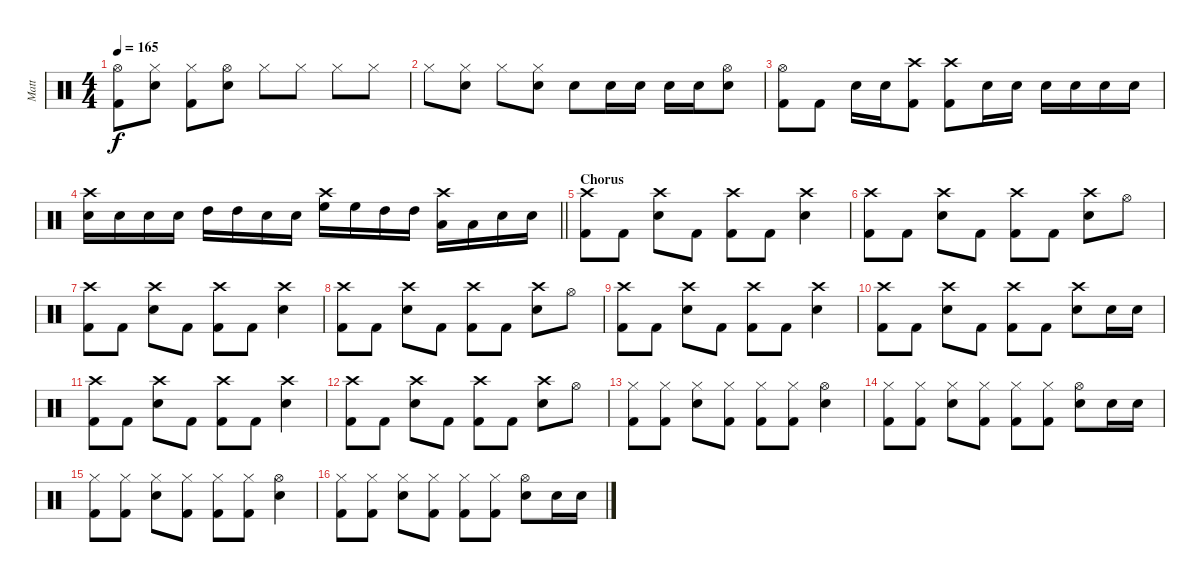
\track ("Matt" "Matt") {instrument percussion}
\staff {score}
\articulation defaults
\ts (4 4)
\tempo 165
\clef neutral
\ks c
("Hi-Hat (open)" "Kick (hit) 2").8{dy f} ("Hi-Hat (closed)" "Electric Snare (hit)").8 ("Hi-Hat (closed)" "Kick (hit) 2").8 ("Hi-Hat (open)" "Electric Snare (hit)").8 "Hi-Hat (closed)".8 "Hi-Hat (closed)".8 "Hi-Hat (closed)".8 "Hi-Hat (closed)".8 |
"Hi-Hat (closed)".8 ("Hi-Hat (closed)" "Electric Snare (hit)").8 "Hi-Hat (closed)".8 ("Hi-Hat (closed)" "Electric Snare (hit)").8 "Electric Snare (hit)".8 "Electric Snare (hit)".16 "Electric Snare (hit)".16 "Electric Snare (hit)".16 "Electric Snare (hit)".16 ("Hi-Hat (open)" "Electric Snare (hit)").8 |
("Hi-Hat (open)" "Kick (hit) 2").8 "Kick (hit) 2".8 "Electric Snare (hit)".16 "Electric Snare (hit)".16 ("Crash high (hit)" "Kick (hit) 2").8 ("Crash high (hit)" "Kick (hit) 2").8 "Electric Snare (hit)".16 "Electric Snare (hit)".16 "Electric Snare (hit)".16 "Electric Snare (hit)".16 "Electric Snare (hit)".16 "Electric Snare (hit)".16 |
\barLineRight lightlight
("Crash high (hit)" "Electric Snare (hit)").16 "Electric Snare (hit)".16 "Electric Snare (hit)".16 "Electric Snare (hit)".16 "High Tom (hit)".16 "High Tom (hit)".16 "Electric Snare (hit)".16 "Electric Snare (hit)".16 ("Crash high (hit)" "High Floor Tom (hit)").16 "High Floor Tom (hit)".16 "High Tom (hit)".16 "High Tom (hit)".16 ("Crash high (hit)" "Low Tom (hit)").16 "Low Tom (hit)".16 "Electric Snare (hit)".16 "Electric Snare (hit)".16 |
\section ("" "Chorus ")
("Crash high (hit)" "Kick (hit) 2").8 "Kick (hit) 2".8 ("Crash high (hit)" "Electric Snare (hit)").8 "Kick (hit) 2".8 ("Crash high (hit)" "Kick (hit) 2").8 "Kick (hit) 2".8 ("Crash high (hit)" "Electric Snare (hit)").4 |
("Crash high (hit)" "Kick (hit) 2").8 "Kick (hit) 2".8 ("Crash high (hit)" "Electric Snare (hit)").8 "Kick (hit) 2".8 ("Crash high (hit)" "Kick (hit) 2").8 "Kick (hit) 2".8 ("Crash high (hit)" "Electric Snare (hit)").8 "Hi-Hat (open)".8 |
("Crash high (hit)" "Kick (hit) 2").8 "Kick (hit) 2".8 ("Crash high (hit)" "Electric Snare (hit)").8 "Kick (hit) 2".8 ("Crash high (hit)" "Kick (hit) 2").8 "Kick (hit) 2".8 ("Crash high (hit)" "Electric Snare (hit)").4 |
("Crash high (hit)" "Kick (hit) 2").8 "Kick (hit) 2".8 ("Crash high (hit)" "Electric Snare (hit)").8 "Kick (hit) 2".8 ("Crash high (hit)" "Kick (hit) 2").8 "Kick (hit) 2".8 ("Crash high (hit)" "Electric Snare (hit)").8 "Hi-Hat (open)".8 |
("Crash high (hit)" "Kick (hit) 2").8 "Kick (hit) 2".8 ("Crash high (hit)" "Electric Snare (hit)").8 "Kick (hit) 2".8 ("Crash high (hit)" "Kick (hit) 2").8 "Kick (hit) 2".8 ("Crash high (hit)" "Electric Snare (hit)").4 |
("Crash high (hit)" "Kick (hit) 2").8 "Kick (hit) 2".8 ("Crash high (hit)" "Electric Snare (hit)").8 "Kick (hit) 2".8 ("Crash high (hit)" "Kick (hit) 2").8 "Kick (hit) 2".8 ("Crash high (hit)" "Electric Snare (hit)").8 "Electric Snare (hit)".16 "Electric Snare (hit)".16 |
("Crash high (hit)" "Kick (hit) 2").8 "Kick (hit) 2".8 ("Crash high (hit)" "Electric Snare (hit)").8 "Kick (hit) 2".8 ("Crash high (hit)" "Kick (hit) 2").8 "Kick (hit) 2".8 ("Crash high (hit)" "Electric Snare (hit)").4 |
("Crash high (hit)" "Kick (hit) 2").8 "Kick (hit) 2".8 ("Crash high (hit)" "Electric Snare (hit)").8 "Kick (hit) 2".8 ("Crash high (hit)" "Kick (hit) 2").8 "Kick (hit) 2".8 ("Crash high (hit)" "Electric Snare (hit)").8 "Hi-Hat (open)".8 |
("Hi-Hat (closed)" "Kick (hit) 2").8 ("Hi-Hat (closed)" "Kick (hit) 2").8 ("Hi-Hat (closed)" "Electric Snare (hit)").8 ("Hi-Hat (closed)" "Kick (hit) 2").8 ("Hi-Hat (closed)" "Kick (hit) 2").8 ("Hi-Hat (closed)" "Kick (hit) 2").8 ("Hi-Hat (open)" "Electric Snare (hit)").4 |
("Hi-Hat (closed)" "Kick (hit) 2").8 ("Hi-Hat (closed)" "Kick (hit) 2").8 ("Hi-Hat (closed)" "Electric Snare (hit)").8 ("Hi-Hat (closed)" "Kick (hit) 2").8 ("Hi-Hat (closed)" "Kick (hit) 2").8 ("Hi-Hat (closed)" "Kick (hit) 2").8 ("Hi-Hat (open)" "Electric Snare (hit)").8 "Electric Snare (hit)".16 "Electric Snare (hit)".16 |
("Hi-Hat (closed)" "Kick (hit) 2").8 ("Hi-Hat (closed)" "Kick (hit) 2").8 ("Hi-Hat (closed)" "Electric Snare (hit)").8 ("Hi-Hat (closed)" "Kick (hit) 2").8 ("Hi-Hat (closed)" "Kick (hit) 2").8 ("Hi-Hat (closed)" "Kick (hit) 2").8 ("Hi-Hat (open)" "Electric Snare (hit)").4 |
("Hi-Hat (closed)" "Kick (hit) 2").8 ("Hi-Hat (closed)" "Kick (hit) 2").8 ("Hi-Hat (closed)" "Electric Snare (hit)").8 ("Hi-Hat (closed)" "Kick (hit) 2").8 ("Hi-Hat (closed)" "Kick (hit) 2").8 ("Hi-Hat (closed)" "Kick (hit) 2").8 ("Hi-Hat (open)" "Electric Snare (hit)").8 "Electric Snare (hit)".16 "Electric Snare (hit)".16
